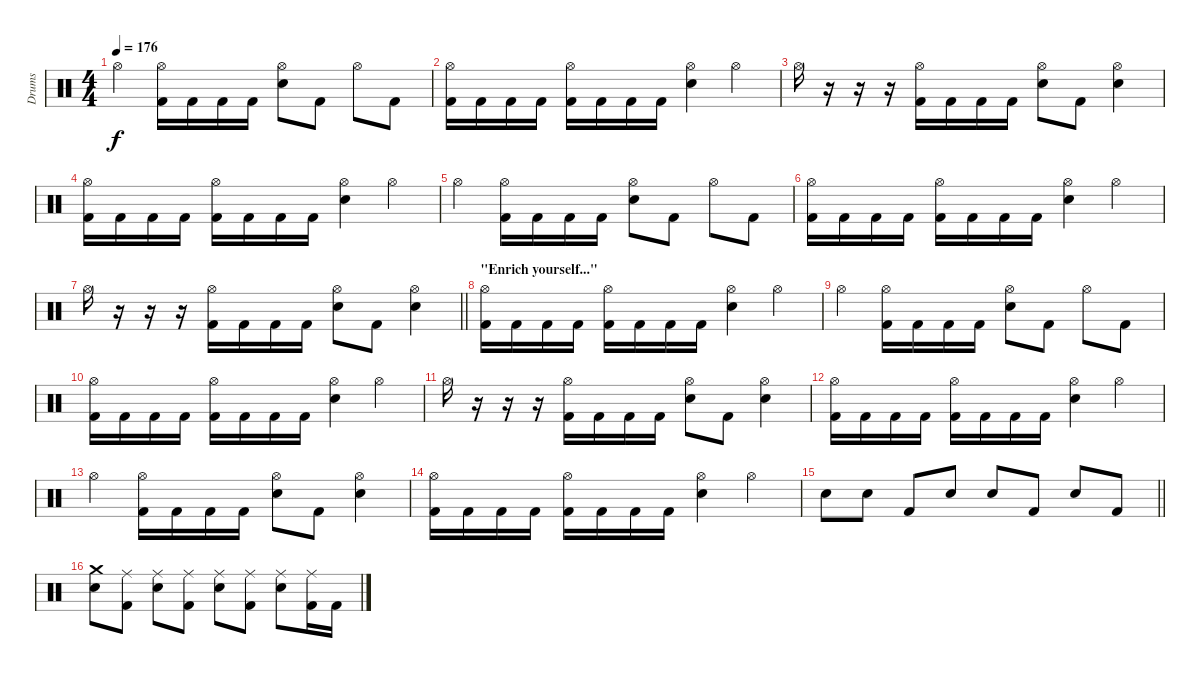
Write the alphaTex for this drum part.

\track ("Drums" "Drums") {instrument percussion}
\staff {score}
\articulation defaults
\ts (4 4)
\tempo 176
\clef neutral
\ks c "Hi-Hat (open)".4{dy f}
("Hi-Hat (open)" "Kick (hit) 2").16 "Kick (hit) 2".16 "Kick (hit) 2".16 "Kick (hit) 2".16 ("Hi-Hat (open)" "Snare (hit) 2").8 "Kick (hit) 2".8 "Hi-Hat (open)".8 "Kick (hit) 2".8 |
("Hi-Hat (open)" "Kick (hit) 2").16 "Kick (hit) 2".16 "Kick (hit) 2".16 "Kick (hit) 2".16 ("Hi-Hat (open)" "Kick (hit) 2").16 "Kick (hit) 2".16 "Kick (hit) 2".16 "Kick (hit) 2".16 ("Hi-Hat (open)" "Snare (hit) 2").4 "Hi-Hat (open)".4 |
"Hi-Hat (open)".16 r.16 r.16 r.16 ("Hi-Hat (open)" "Kick (hit) 2").16 "Kick (hit) 2".16 "Kick (hit) 2".16 "Kick (hit) 2".16 ("Hi-Hat (open)" "Snare (hit) 2").8 "Kick (hit) 2".8 ("Hi-Hat (open)" "Snare (hit) 2").4 |
("Hi-Hat (open)" "Kick (hit) 2").16 "Kick (hit) 2".16 "Kick (hit) 2".16 "Kick (hit) 2".16 ("Hi-Hat (open)" "Kick (hit) 2").16 "Kick (hit) 2".16 "Kick (hit) 2".16 "Kick (hit) 2".16 ("Hi-Hat (open)" "Snare (hit) 2").4 "Hi-Hat (open)".4 |
"Hi-Hat (open)".4 ("Hi-Hat (open)" "Kick (hit) 2").16 "Kick (hit) 2".16 "Kick (hit) 2".16 "Kick (hit) 2".16 ("Hi-Hat (open)" "Snare (hit) 2").8 "Kick (hit) 2".8 "Hi-Hat (open)".8 "Kick (hit) 2".8 |
("Hi-Hat (open)" "Kick (hit) 2").16 "Kick (hit) 2".16 "Kick (hit) 2".16 "Kick (hit) 2".16 ("Hi-Hat (open)" "Kick (hit) 2").16 "Kick (hit) 2".16 "Kick (hit) 2".16 "Kick (hit) 2".16 ("Hi-Hat (open)" "Snare (hit) 2").4 "Hi-Hat (open)".4 |
\barLineRight lightlight "Hi-Hat (open)".16
r.16 r.16 r.16 ("Hi-Hat (open)" "Kick (hit) 2").16 "Kick (hit) 2".16 "Kick (hit) 2".16 "Kick (hit) 2".16 ("Hi-Hat (open)" "Snare (hit) 2").8 "Kick (hit) 2".8 ("Hi-Hat (open)" "Snare (hit) 2").4 |
\section ("" "\"Enrich yourself...\"")
("Hi-Hat (open)" "Kick (hit) 2").16 "Kick (hit) 2".16 "Kick (hit) 2".16 "Kick (hit) 2".16 ("Hi-Hat (open)" "Kick (hit) 2").16 "Kick (hit) 2".16 "Kick (hit) 2".16 "Kick (hit) 2".16 ("Hi-Hat (open)" "Snare (hit) 2").4 "Hi-Hat (open)".4 |
"Hi-Hat (open)".4 ("Hi-Hat (open)" "Kick (hit) 2").16 "Kick (hit) 2".16 "Kick (hit) 2".16 "Kick (hit) 2".16 ("Hi-Hat (open)" "Snare (hit) 2").8 "Kick (hit) 2".8 "Hi-Hat (open)".8 "Kick (hit) 2".8 |
("Hi-Hat (open)" "Kick (hit) 2").16 "Kick (hit) 2".16 "Kick (hit) 2".16 "Kick (hit) 2".16 ("Hi-Hat (open)" "Kick (hit) 2").16 "Kick (hit) 2".16 "Kick (hit) 2".16 "Kick (hit) 2".16 ("Hi-Hat (open)" "Snare (hit) 2").4 "Hi-Hat (open)".4 |
"Hi-Hat (open)".16 r.16 r.16 r.16 ("Hi-Hat (open)" "Kick (hit) 2").16 "Kick (hit) 2".16 "Kick (hit) 2".16 "Kick (hit) 2".16 ("Hi-Hat (open)" "Snare (hit) 2").8 "Kick (hit) 2".8 ("Hi-Hat (open)" "Snare (hit) 2").4 |
("Hi-Hat (open)" "Kick (hit) 2").16 "Kick (hit) 2".16 "Kick (hit) 2".16 "Kick (hit) 2".16 ("Hi-Hat (open)" "Kick (hit) 2").16 "Kick (hit) 2".16 "Kick (hit) 2".16 "Kick (hit) 2".16 ("Hi-Hat (open)" "Snare (hit) 2").4 "Hi-Hat (open)".4 |
"Hi-Hat (open)".4 ("Hi-Hat (open)" "Kick (hit) 2").16 "Kick (hit) 2".16 "Kick (hit) 2".16 "Kick (hit) 2".16 ("Hi-Hat (open)" "Snare (hit) 2").8 "Kick (hit) 2".8 ("Hi-Hat (open)" "Snare (hit) 2").4 |
("Hi-Hat (open)" "Kick (hit) 2").16 "Kick (hit) 2".16 "Kick (hit) 2".16 "Kick (hit) 2".16 ("Hi-Hat (open)" "Kick (hit) 2").16 "Kick (hit) 2".16 "Kick (hit) 2".16 "Kick (hit) 2".16 ("Hi-Hat (open)" "Snare (hit) 2").4 "Hi-Hat (open)".4 |
\barLineRight lightlight "Snare (hit) 2".8 "Snare (hit) 2".8 "Kick (hit) 2".8 "Snare (hit) 2".8 "Snare (hit) 2".8 "Kick (hit) 2".8 "Snare (hit) 2".8 "Kick (hit) 2".8
|
\section ("" "")
("Crash medium (hit)" "Snare (hit) 2").8 ("Ride (middle)" "Kick (hit) 2").8 ("Ride (middle)" "Snare (hit) 2").8 ("Ride (middle)" "Kick (hit) 2").8 ("Ride (middle)" "Snare (hit) 2").8 ("Ride (middle)" "Kick (hit) 2").8 ("Ride (middle)" "Snare (hit) 2").8 ("Ride (middle)" "Kick (hit) 2").16 "Kick (hit) 2".16
